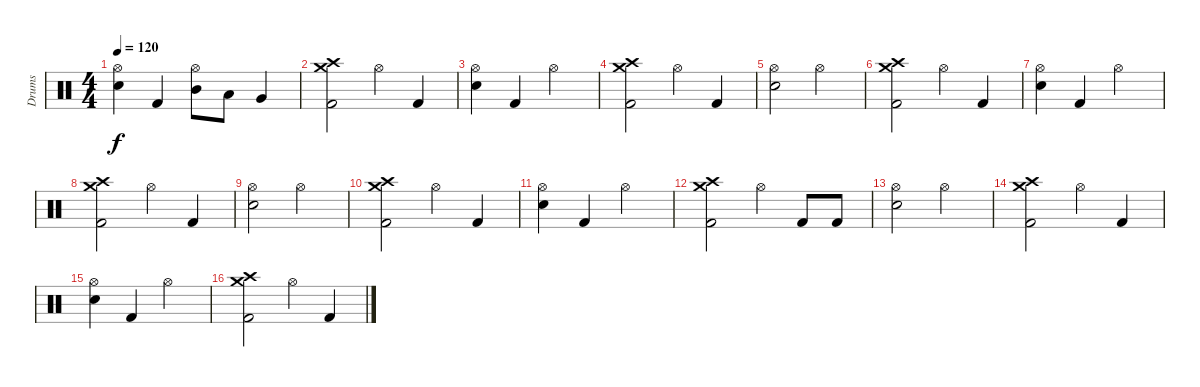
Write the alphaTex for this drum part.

\track ("Drums" "Drums") {instrument percussion}
\staff {score}
\articulation defaults
\ts (4 4)
\tempo 120
\clef neutral
\ks c
("Hi-Hat (open)" "Snare (hit) 2").4{dy f} "Kick (hit) 2".4 ("Hi-Hat (open)" "Mid Tom (hit)").8 "Low Tom (hit)".8 "Very Low Tom (hit)".4 |
("Crash high (hit)" "Crash medium (hit)" "Kick (hit) 2").2 "Hi-Hat (open)".4 "Kick (hit) 2".4 |
("Hi-Hat (open)" "Snare (hit) 2").4 "Kick (hit) 2".4 "Hi-Hat (open)".2 |
("Crash high (hit)" "Crash medium (hit)" "Kick (hit) 2").2 "Hi-Hat (open)".4 "Kick (hit) 2".4 |
("Hi-Hat (open)" "Snare (hit) 2").2 "Hi-Hat (open)".2 |
("Crash high (hit)" "Crash medium (hit)" "Kick (hit) 2").2 "Hi-Hat (open)".4 "Kick (hit) 2".4 |
("Hi-Hat (open)" "Snare (hit) 2").4 "Kick (hit) 2".4 "Hi-Hat (open)".2 |
("Crash high (hit)" "Crash medium (hit)" "Kick (hit) 2").2 "Hi-Hat (open)".4 "Kick (hit) 2".4 |
("Hi-Hat (open)" "Snare (hit) 2").2 "Hi-Hat (open)".2 |
("Crash high (hit)" "Crash medium (hit)" "Kick (hit) 2").2 "Hi-Hat (open)".4 "Kick (hit) 2".4 |
("Hi-Hat (open)" "Snare (hit) 2").4 "Kick (hit) 2".4 "Hi-Hat (open)".2 |
("Crash high (hit)" "Crash medium (hit)" "Kick (hit) 2").2 "Hi-Hat (open)".4 "Kick (hit) 2".8 "Kick (hit) 2".8 |
("Hi-Hat (open)" "Snare (hit) 2").2 "Hi-Hat (open)".2 |
("Crash high (hit)" "Crash medium (hit)" "Kick (hit) 2").2 "Hi-Hat (open)".4 "Kick (hit) 2".4 |
("Hi-Hat (open)" "Snare (hit) 2").4 "Kick (hit) 2".4 "Hi-Hat (open)".2 |
("Crash high (hit)" "Crash medium (hit)" "Kick (hit) 2").2 "Hi-Hat (open)".4 "Kick (hit) 2".4
